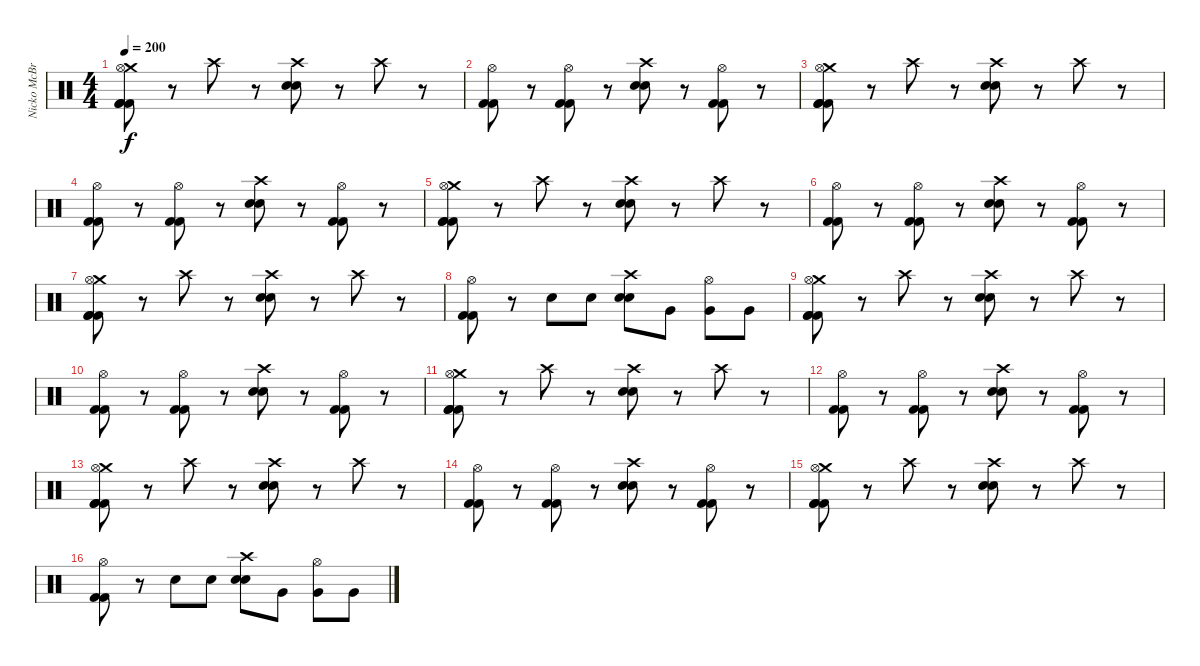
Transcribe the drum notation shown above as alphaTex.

\track ("Nicko McBrain" "Nicko McBr") {instrument percussion}
\staff {score}
\articulation defaults
\ts (4 4)
\tempo 200
\clef neutral
\ks c
("Crash medium (hit)" "Hi-Hat (open)" "Kick (hit) 2" "Kick (hit) 2" "Kick (hit) 2").8{dy f} r.8 "Crash high (hit)".8 r.8 ("Crash high (hit)" "Snare (hit) 2" "Snare (hit) 2").8 r.8 "Crash high (hit)".8 r.8 |
("Hi-Hat (open)" "Kick (hit) 2" "Kick (hit) 2").8 r.8 ("Hi-Hat (open)" "Kick (hit) 2" "Kick (hit) 2").8 r.8 ("Crash high (hit)" "Snare (hit) 2" "Snare (hit) 2").8 r.8 ("Hi-Hat (open)" "Kick (hit) 2" "Kick (hit) 2").8 r.8 |
("Crash medium (hit)" "Hi-Hat (open)" "Kick (hit) 2" "Kick (hit) 2" "Kick (hit) 2").8 r.8 "Crash high (hit)".8 r.8 ("Crash high (hit)" "Snare (hit) 2" "Snare (hit) 2").8 r.8 "Crash high (hit)".8 r.8 |
("Hi-Hat (open)" "Kick (hit) 2" "Kick (hit) 2").8 r.8 ("Hi-Hat (open)" "Kick (hit) 2" "Kick (hit) 2").8 r.8 ("Crash high (hit)" "Snare (hit) 2" "Snare (hit) 2").8 r.8 ("Hi-Hat (open)" "Kick (hit) 2" "Kick (hit) 2").8 r.8 |
("Crash medium (hit)" "Hi-Hat (open)" "Kick (hit) 2" "Kick (hit) 2" "Kick (hit) 2").8 r.8 "Crash high (hit)".8 r.8 ("Crash high (hit)" "Snare (hit) 2" "Snare (hit) 2").8 r.8 "Crash high (hit)".8 r.8 |
("Hi-Hat (open)" "Kick (hit) 2" "Kick (hit) 2").8 r.8 ("Hi-Hat (open)" "Kick (hit) 2" "Kick (hit) 2").8 r.8 ("Crash high (hit)" "Snare (hit) 2" "Snare (hit) 2").8 r.8 ("Hi-Hat (open)" "Kick (hit) 2" "Kick (hit) 2").8 r.8 |
("Crash medium (hit)" "Hi-Hat (open)" "Kick (hit) 2" "Kick (hit) 2" "Kick (hit) 2").8 r.8 "Crash high (hit)".8 r.8 ("Crash high (hit)" "Snare (hit) 2" "Snare (hit) 2").8 r.8 "Crash high (hit)".8 r.8 |
("Hi-Hat (open)" "Kick (hit) 2" "Kick (hit) 2").8 r.8 "Snare (hit) 2".8 "Snare (hit) 2".8 ("Crash high (hit)" "Snare (hit) 2" "Snare (hit) 2").8 "Very Low Tom (hit)".8 ("Hi-Hat (open)" "Very Low Tom (hit)").8 "Very Low Tom (hit)".8 |
("Crash medium (hit)" "Hi-Hat (open)" "Kick (hit) 2" "Kick (hit) 2" "Kick (hit) 2").8 r.8 "Crash high (hit)".8 r.8 ("Crash high (hit)" "Snare (hit) 2" "Snare (hit) 2").8 r.8 "Crash high (hit)".8 r.8 |
("Hi-Hat (open)" "Kick (hit) 2" "Kick (hit) 2").8 r.8 ("Hi-Hat (open)" "Kick (hit) 2" "Kick (hit) 2").8 r.8 ("Crash high (hit)" "Snare (hit) 2" "Snare (hit) 2").8 r.8 ("Hi-Hat (open)" "Kick (hit) 2" "Kick (hit) 2").8 r.8 |
("Crash medium (hit)" "Hi-Hat (open)" "Kick (hit) 2" "Kick (hit) 2" "Kick (hit) 2").8 r.8 "Crash high (hit)".8 r.8 ("Crash high (hit)" "Snare (hit) 2" "Snare (hit) 2").8 r.8 "Crash high (hit)".8 r.8 |
("Hi-Hat (open)" "Kick (hit) 2" "Kick (hit) 2").8 r.8 ("Hi-Hat (open)" "Kick (hit) 2" "Kick (hit) 2").8 r.8 ("Crash high (hit)" "Snare (hit) 2" "Snare (hit) 2").8 r.8 ("Hi-Hat (open)" "Kick (hit) 2" "Kick (hit) 2").8 r.8 |
("Crash medium (hit)" "Hi-Hat (open)" "Kick (hit) 2" "Kick (hit) 2" "Kick (hit) 2").8 r.8 "Crash high (hit)".8 r.8 ("Crash high (hit)" "Snare (hit) 2" "Snare (hit) 2").8 r.8 "Crash high (hit)".8 r.8 |
("Hi-Hat (open)" "Kick (hit) 2" "Kick (hit) 2").8 r.8 ("Hi-Hat (open)" "Kick (hit) 2" "Kick (hit) 2").8 r.8 ("Crash high (hit)" "Snare (hit) 2" "Snare (hit) 2").8 r.8 ("Hi-Hat (open)" "Kick (hit) 2" "Kick (hit) 2").8 r.8 |
("Crash medium (hit)" "Hi-Hat (open)" "Kick (hit) 2" "Kick (hit) 2" "Kick (hit) 2").8 r.8 "Crash high (hit)".8 r.8 ("Crash high (hit)" "Snare (hit) 2" "Snare (hit) 2").8 r.8 "Crash high (hit)".8 r.8 |
("Hi-Hat (open)" "Kick (hit) 2" "Kick (hit) 2").8 r.8 "Snare (hit) 2".8 "Snare (hit) 2".8 ("Crash high (hit)" "Snare (hit) 2" "Snare (hit) 2").8 "Very Low Tom (hit)".8 ("Hi-Hat (open)" "Very Low Tom (hit)").8 "Very Low Tom (hit)".8
